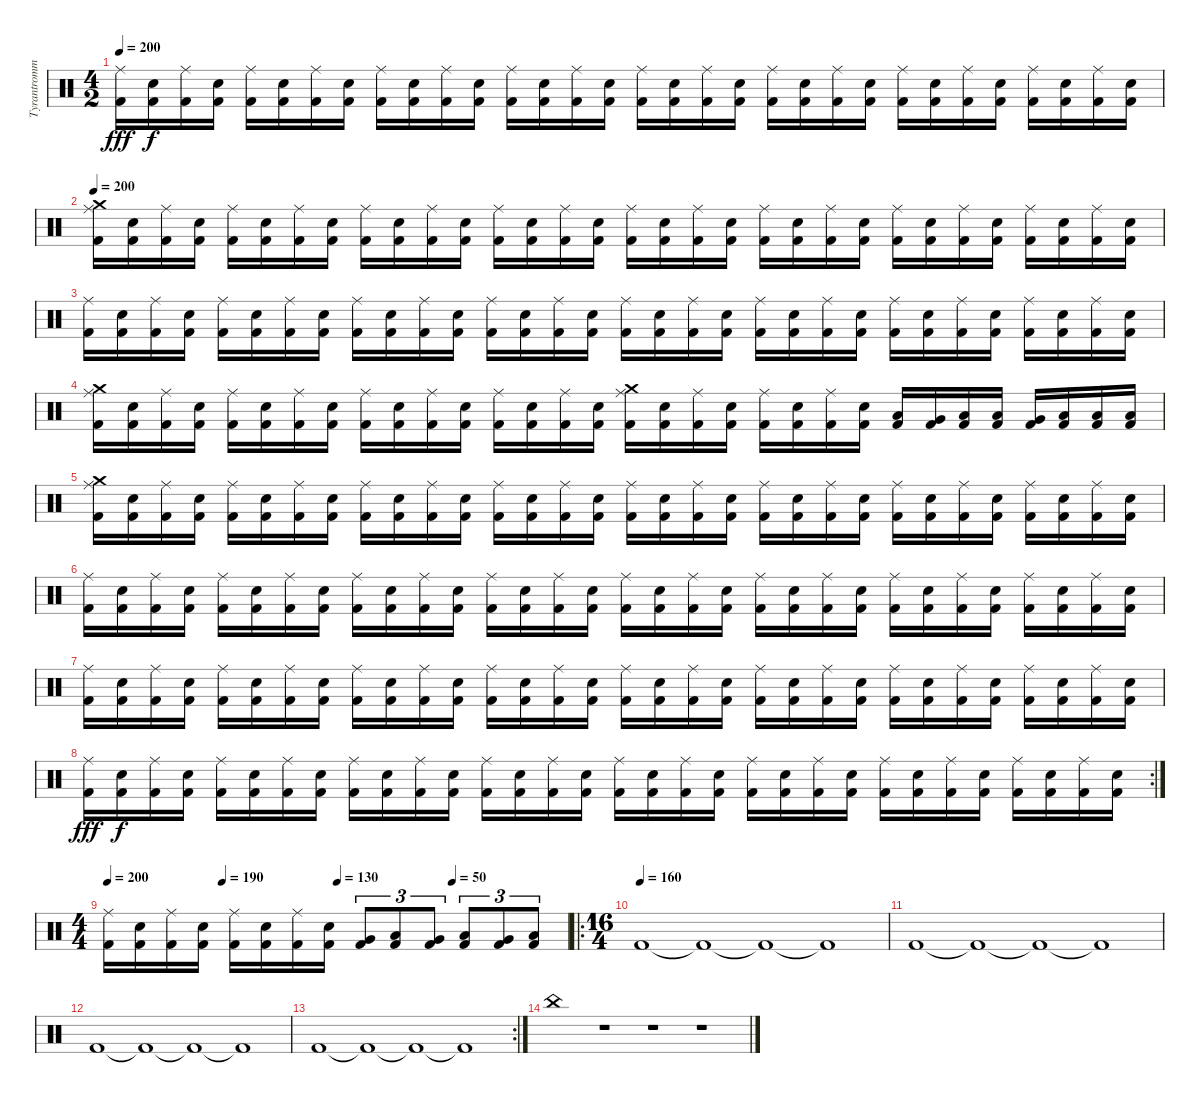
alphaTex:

\track ("Tyrantrommerslager" "Tyrantromm") {instrument percussion}
\staff {score}
\articulation defaults
\ts (4 2)
\tempo 200
\clef neutral
\ks c
("Kick (hit) 2" "Ride (middle)").16{dy fff} ("Kick (hit) 2" "Electric Snare (hit)").16{dy f} ("Kick (hit) 2" "Ride (middle)").16 ("Kick (hit) 2" "Electric Snare (hit)").16 ("Kick (hit) 2" "Ride (middle)").16 ("Kick (hit) 2" "Electric Snare (hit)").16 ("Kick (hit) 2" "Ride (middle)").16 ("Kick (hit) 2" "Electric Snare (hit)").16 ("Kick (hit) 2" "Ride (middle)").16 ("Kick (hit) 2" "Electric Snare (hit)").16 ("Kick (hit) 2" "Ride (middle)").16 ("Kick (hit) 2" "Electric Snare (hit)").16 ("Kick (hit) 2" "Ride (middle)").16 ("Kick (hit) 2" "Electric Snare (hit)").16 ("Kick (hit) 2" "Ride (middle)").16 ("Kick (hit) 2" "Electric Snare (hit)").16 ("Kick (hit) 2" "Ride (middle)").16 ("Kick (hit) 2" "Electric Snare (hit)").16 ("Kick (hit) 2" "Ride (middle)").16 ("Kick (hit) 2" "Electric Snare (hit)").16 ("Kick (hit) 2" "Ride (middle)").16 ("Kick (hit) 2" "Electric Snare (hit)").16 ("Kick (hit) 2" "Ride (middle)").16 ("Kick (hit) 2" "Electric Snare (hit)").16 ("Kick (hit) 2" "Ride (middle)").16 ("Kick (hit) 2" "Electric Snare (hit)").16 ("Kick (hit) 2" "Ride (middle)").16 ("Kick (hit) 2" "Electric Snare (hit)").16 ("Kick (hit) 2" "Ride (middle)").16 ("Kick (hit) 2" "Electric Snare (hit)").16 ("Kick (hit) 2" "Ride (middle)").16 ("Kick (hit) 2" "Electric Snare (hit)").16 |
\tempo 200
("Kick (hit) 2" "Crash medium (hit)" "Ride (middle)").16 ("Kick (hit) 2" "Electric Snare (hit)").16 ("Kick (hit) 2" "Ride (middle)").16 ("Kick (hit) 2" "Electric Snare (hit)").16 ("Kick (hit) 2" "Ride (middle)").16 ("Kick (hit) 2" "Electric Snare (hit)").16 ("Kick (hit) 2" "Ride (middle)").16 ("Kick (hit) 2" "Electric Snare (hit)").16 ("Kick (hit) 2" "Ride (middle)").16 ("Kick (hit) 2" "Electric Snare (hit)").16 ("Kick (hit) 2" "Ride (middle)").16 ("Kick (hit) 2" "Electric Snare (hit)").16 ("Kick (hit) 2" "Ride (middle)").16 ("Kick (hit) 2" "Electric Snare (hit)").16 ("Kick (hit) 2" "Ride (middle)").16 ("Kick (hit) 2" "Electric Snare (hit)").16 ("Kick (hit) 2" "Ride (middle)").16 ("Kick (hit) 2" "Electric Snare (hit)").16 ("Kick (hit) 2" "Ride (middle)").16 ("Kick (hit) 2" "Electric Snare (hit)").16 ("Kick (hit) 2" "Ride (middle)").16 ("Kick (hit) 2" "Electric Snare (hit)").16 ("Kick (hit) 2" "Ride (middle)").16 ("Kick (hit) 2" "Electric Snare (hit)").16 ("Kick (hit) 2" "Ride (middle)").16 ("Kick (hit) 2" "Electric Snare (hit)").16 ("Kick (hit) 2" "Ride (middle)").16 ("Kick (hit) 2" "Electric Snare (hit)").16 ("Kick (hit) 2" "Ride (middle)").16 ("Kick (hit) 2" "Electric Snare (hit)").16 ("Kick (hit) 2" "Ride (middle)").16 ("Kick (hit) 2" "Electric Snare (hit)").16 |
("Kick (hit) 2" "Ride (middle)").16 ("Kick (hit) 2" "Electric Snare (hit)").16 ("Kick (hit) 2" "Ride (middle)").16 ("Kick (hit) 2" "Electric Snare (hit)").16 ("Kick (hit) 2" "Ride (middle)").16 ("Kick (hit) 2" "Electric Snare (hit)").16 ("Kick (hit) 2" "Ride (middle)").16 ("Kick (hit) 2" "Electric Snare (hit)").16 ("Kick (hit) 2" "Ride (middle)").16 ("Kick (hit) 2" "Electric Snare (hit)").16 ("Kick (hit) 2" "Ride (middle)").16 ("Kick (hit) 2" "Electric Snare (hit)").16 ("Kick (hit) 2" "Ride (middle)").16 ("Kick (hit) 2" "Electric Snare (hit)").16 ("Kick (hit) 2" "Ride (middle)").16 ("Kick (hit) 2" "Electric Snare (hit)").16 ("Kick (hit) 2" "Ride (middle)").16 ("Kick (hit) 2" "Electric Snare (hit)").16 ("Kick (hit) 2" "Ride (middle)").16 ("Kick (hit) 2" "Electric Snare (hit)").16 ("Kick (hit) 2" "Ride (middle)").16 ("Kick (hit) 2" "Electric Snare (hit)").16 ("Kick (hit) 2" "Ride (middle)").16 ("Kick (hit) 2" "Electric Snare (hit)").16 ("Kick (hit) 2" "Ride (middle)").16 ("Kick (hit) 2" "Electric Snare (hit)").16 ("Kick (hit) 2" "Ride (middle)").16 ("Kick (hit) 2" "Electric Snare (hit)").16 ("Kick (hit) 2" "Ride (middle)").16 ("Kick (hit) 2" "Electric Snare (hit)").16 ("Kick (hit) 2" "Ride (middle)").16 ("Kick (hit) 2" "Electric Snare (hit)").16 |
("Kick (hit) 2" "Crash medium (hit)" "Ride (middle)").16 ("Kick (hit) 2" "Electric Snare (hit)").16 ("Kick (hit) 2" "Ride (middle)").16 ("Kick (hit) 2" "Electric Snare (hit)").16 ("Kick (hit) 2" "Ride (middle)").16 ("Kick (hit) 2" "Electric Snare (hit)").16 ("Kick (hit) 2" "Ride (middle)").16 ("Kick (hit) 2" "Electric Snare (hit)").16 ("Kick (hit) 2" "Ride (middle)").16 ("Kick (hit) 2" "Electric Snare (hit)").16 ("Kick (hit) 2" "Ride (middle)").16 ("Kick (hit) 2" "Electric Snare (hit)").16 ("Kick (hit) 2" "Ride (middle)").16 ("Kick (hit) 2" "Electric Snare (hit)").16 ("Kick (hit) 2" "Ride (middle)").16 ("Kick (hit) 2" "Electric Snare (hit)").16 ("Kick (hit) 2" "Crash medium (hit)" "Ride (middle)").16 ("Kick (hit) 2" "Electric Snare (hit)").16 ("Kick (hit) 2" "Ride (middle)").16 ("Kick (hit) 2" "Electric Snare (hit)").16 ("Kick (hit) 2" "Ride (middle)").16 ("Kick (hit) 2" "Electric Snare (hit)").16 ("Kick (hit) 2" "Ride (middle)").16 ("Kick (hit) 2" "Electric Snare (hit)").16 ("Kick (hit) 2" "Low Tom (hit)").16 ("Kick (hit) 2" "Very Low Tom (hit)").16 ("Kick (hit) 2" "Low Tom (hit)").16 ("Kick (hit) 2" "Low Tom (hit)").16 ("Kick (hit) 2" "Very Low Tom (hit)").16 ("Kick (hit) 2" "Low Floor Tom (hit)").16 ("Kick (hit) 2" "Low Floor Tom (hit)").16 ("Kick (hit) 2" "Low Floor Tom (hit)").16 |
("Kick (hit) 2" "Crash medium (hit)" "Ride (middle)").16 ("Kick (hit) 2" "Electric Snare (hit)").16 ("Kick (hit) 2" "Ride (middle)").16 ("Kick (hit) 2" "Electric Snare (hit)").16 ("Kick (hit) 2" "Ride (middle)").16 ("Kick (hit) 2" "Electric Snare (hit)").16 ("Kick (hit) 2" "Ride (middle)").16 ("Kick (hit) 2" "Electric Snare (hit)").16 ("Kick (hit) 2" "Ride (middle)").16 ("Kick (hit) 2" "Electric Snare (hit)").16 ("Kick (hit) 2" "Ride (middle)").16 ("Kick (hit) 2" "Electric Snare (hit)").16 ("Kick (hit) 2" "Ride (middle)").16 ("Kick (hit) 2" "Electric Snare (hit)").16 ("Kick (hit) 2" "Ride (middle)").16 ("Kick (hit) 2" "Electric Snare (hit)").16 ("Kick (hit) 2" "Ride (middle)").16 ("Kick (hit) 2" "Electric Snare (hit)").16 ("Kick (hit) 2" "Ride (middle)").16 ("Kick (hit) 2" "Electric Snare (hit)").16 ("Kick (hit) 2" "Ride (middle)").16 ("Kick (hit) 2" "Electric Snare (hit)").16 ("Kick (hit) 2" "Ride (middle)").16 ("Kick (hit) 2" "Electric Snare (hit)").16 ("Kick (hit) 2" "Ride (middle)").16 ("Kick (hit) 2" "Electric Snare (hit)").16 ("Kick (hit) 2" "Ride (middle)").16 ("Kick (hit) 2" "Electric Snare (hit)").16 ("Kick (hit) 2" "Ride (middle)").16 ("Kick (hit) 2" "Electric Snare (hit)").16 ("Kick (hit) 2" "Ride (middle)").16 ("Kick (hit) 2" "Electric Snare (hit)").16 |
("Kick (hit) 2" "Ride (middle)").16 ("Kick (hit) 2" "Electric Snare (hit)").16 ("Kick (hit) 2" "Ride (middle)").16 ("Kick (hit) 2" "Electric Snare (hit)").16 ("Kick (hit) 2" "Ride (middle)").16 ("Kick (hit) 2" "Electric Snare (hit)").16 ("Kick (hit) 2" "Ride (middle)").16 ("Kick (hit) 2" "Electric Snare (hit)").16 ("Kick (hit) 2" "Ride (middle)").16 ("Kick (hit) 2" "Electric Snare (hit)").16 ("Kick (hit) 2" "Ride (middle)").16 ("Kick (hit) 2" "Electric Snare (hit)").16 ("Kick (hit) 2" "Ride (middle)").16 ("Kick (hit) 2" "Electric Snare (hit)").16 ("Kick (hit) 2" "Ride (middle)").16 ("Kick (hit) 2" "Electric Snare (hit)").16 ("Kick (hit) 2" "Ride (middle)").16 ("Kick (hit) 2" "Electric Snare (hit)").16 ("Kick (hit) 2" "Ride (middle)").16 ("Kick (hit) 2" "Electric Snare (hit)").16 ("Kick (hit) 2" "Ride (middle)").16 ("Kick (hit) 2" "Electric Snare (hit)").16 ("Kick (hit) 2" "Ride (middle)").16 ("Kick (hit) 2" "Electric Snare (hit)").16 ("Kick (hit) 2" "Ride (middle)").16 ("Kick (hit) 2" "Electric Snare (hit)").16 ("Kick (hit) 2" "Ride (middle)").16 ("Kick (hit) 2" "Electric Snare (hit)").16 ("Kick (hit) 2" "Ride (middle)").16 ("Kick (hit) 2" "Electric Snare (hit)").16 ("Kick (hit) 2" "Ride (middle)").16 ("Kick (hit) 2" "Electric Snare (hit)").16 |
("Kick (hit) 2" "Ride (middle)").16 ("Kick (hit) 2" "Electric Snare (hit)").16 ("Kick (hit) 2" "Ride (middle)").16 ("Kick (hit) 2" "Electric Snare (hit)").16 ("Kick (hit) 2" "Ride (middle)").16 ("Kick (hit) 2" "Electric Snare (hit)").16 ("Kick (hit) 2" "Ride (middle)").16 ("Kick (hit) 2" "Electric Snare (hit)").16 ("Kick (hit) 2" "Ride (middle)").16 ("Kick (hit) 2" "Electric Snare (hit)").16 ("Kick (hit) 2" "Ride (middle)").16 ("Kick (hit) 2" "Electric Snare (hit)").16 ("Kick (hit) 2" "Ride (middle)").16 ("Kick (hit) 2" "Electric Snare (hit)").16 ("Kick (hit) 2" "Ride (middle)").16 ("Kick (hit) 2" "Electric Snare (hit)").16 ("Kick (hit) 2" "Ride (middle)").16 ("Kick (hit) 2" "Electric Snare (hit)").16 ("Kick (hit) 2" "Ride (middle)").16 ("Kick (hit) 2" "Electric Snare (hit)").16 ("Kick (hit) 2" "Ride (middle)").16 ("Kick (hit) 2" "Electric Snare (hit)").16 ("Kick (hit) 2" "Ride (middle)").16 ("Kick (hit) 2" "Electric Snare (hit)").16 ("Kick (hit) 2" "Ride (middle)").16 ("Kick (hit) 2" "Electric Snare (hit)").16 ("Kick (hit) 2" "Ride (middle)").16 ("Kick (hit) 2" "Electric Snare (hit)").16 ("Kick (hit) 2" "Ride (middle)").16 ("Kick (hit) 2" "Electric Snare (hit)").16 ("Kick (hit) 2" "Ride (middle)").16 ("Kick (hit) 2" "Electric Snare (hit)").16 |
\rc 2
("Kick (hit) 2" "Ride (middle)").16{dy fff} ("Kick (hit) 2" "Electric Snare (hit)").16{dy f} ("Kick (hit) 2" "Ride (middle)").16 ("Kick (hit) 2" "Electric Snare (hit)").16 ("Kick (hit) 2" "Ride (middle)").16 ("Kick (hit) 2" "Electric Snare (hit)").16 ("Kick (hit) 2" "Ride (middle)").16 ("Kick (hit) 2" "Electric Snare (hit)").16 ("Kick (hit) 2" "Ride (middle)").16 ("Kick (hit) 2" "Electric Snare (hit)").16 ("Kick (hit) 2" "Ride (middle)").16 ("Kick (hit) 2" "Electric Snare (hit)").16 ("Kick (hit) 2" "Ride (middle)").16 ("Kick (hit) 2" "Electric Snare (hit)").16 ("Kick (hit) 2" "Ride (middle)").16 ("Kick (hit) 2" "Electric Snare (hit)").16 ("Kick (hit) 2" "Ride (middle)").16 ("Kick (hit) 2" "Electric Snare (hit)").16 ("Kick (hit) 2" "Ride (middle)").16 ("Kick (hit) 2" "Electric Snare (hit)").16 ("Kick (hit) 2" "Ride (middle)").16 ("Kick (hit) 2" "Electric Snare (hit)").16 ("Kick (hit) 2" "Ride (middle)").16 ("Kick (hit) 2" "Electric Snare (hit)").16 ("Kick (hit) 2" "Ride (middle)").16 ("Kick (hit) 2" "Electric Snare (hit)").16 ("Kick (hit) 2" "Ride (middle)").16 ("Kick (hit) 2" "Electric Snare (hit)").16 ("Kick (hit) 2" "Ride (middle)").16 ("Kick (hit) 2" "Electric Snare (hit)").16 ("Kick (hit) 2" "Ride (middle)").16 ("Kick (hit) 2" "Electric Snare (hit)").16 |
\ts (4 4)
\tempo 200
\tempo (190 0.25)
\tempo (130 0.5)
\tempo (50 0.75)
("Kick (hit) 2" "Ride (middle)").16 ("Kick (hit) 2" "Electric Snare (hit)").16 ("Kick (hit) 2" "Ride (middle)").16 ("Kick (hit) 2" "Electric Snare (hit)").16 ("Kick (hit) 2" "Ride (middle)").16 ("Kick (hit) 2" "Electric Snare (hit)").16 ("Kick (hit) 2" "Ride (middle)").16 ("Kick (hit) 2" "Electric Snare (hit)").16 ("Kick (hit) 2" "Very Low Tom (hit)").8{tu (3 2)} ("Kick (hit) 2" "Low Tom (hit)").8{tu (3 2)} ("Kick (hit) 2" "Very Low Tom (hit)").8{tu (3 2)} ("Kick (hit) 2" "Low Floor Tom (hit)").8{tu (3 2)} ("Kick (hit) 2" "Very Low Tom (hit)").8{tu (3 2)} ("Kick (hit) 2" "Low Tom (hit)").8{tu (3 2)} |
\ro
\ts (16 4)
\tempo (160)
"Kick (hit) 2".1 "Kick (hit) 2"{t}.1 "Kick (hit) 2"{t}.1 "Kick (hit) 2"{t}.1 |
"Kick (hit) 2".1 "Kick (hit) 2"{t}.1 "Kick (hit) 2"{t}.1 "Kick (hit) 2"{t}.1 |
"Kick (hit) 2".1 "Kick (hit) 2"{t}.1 "Kick (hit) 2"{t}.1 "Kick (hit) 2"{t}.1 |
\rc 2 "Kick (hit) 2".1 "Kick (hit) 2"{t}.1 "Kick (hit) 2"{t}.1 "Kick (hit) 2"{t}.1
|
"China (hit)".1 r.1 r.1 r.1
